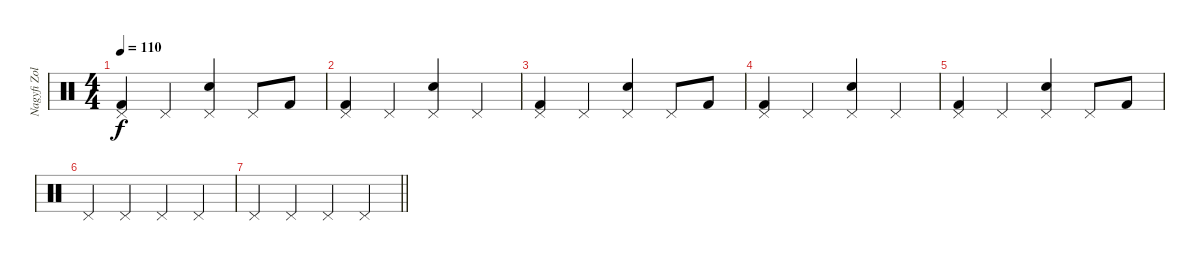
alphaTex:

\track ("Nagyfi Zoltán (dob)" "Nagyfi Zol") {instrument percussion}
\staff {score}
\articulation defaults
\ts (4 4)
\tempo 110
\clef neutral
\ks c
("Pedal Hi-Hat (hit)" "Kick (hit) 2").4{dy f} "Pedal Hi-Hat (hit)".4 ("Pedal Hi-Hat (hit)" "Snare (hit) 2").4 "Pedal Hi-Hat (hit)".8 "Kick (hit) 2".8 |
("Pedal Hi-Hat (hit)" "Kick (hit) 2").4 "Pedal Hi-Hat (hit)".4 ("Pedal Hi-Hat (hit)" "Snare (hit) 2").4 "Pedal Hi-Hat (hit)".4 |
("Pedal Hi-Hat (hit)" "Kick (hit) 2").4 "Pedal Hi-Hat (hit)".4 ("Pedal Hi-Hat (hit)" "Snare (hit) 2").4 "Pedal Hi-Hat (hit)".8 "Kick (hit) 2".8 |
("Pedal Hi-Hat (hit)" "Kick (hit) 2").4 "Pedal Hi-Hat (hit)".4 ("Pedal Hi-Hat (hit)" "Snare (hit) 2").4 "Pedal Hi-Hat (hit)".4 |
("Pedal Hi-Hat (hit)" "Kick (hit) 2").4 "Pedal Hi-Hat (hit)".4 ("Pedal Hi-Hat (hit)" "Snare (hit) 2").4 "Pedal Hi-Hat (hit)".8 "Kick (hit) 2".8 |
"Pedal Hi-Hat (hit)".4 "Pedal Hi-Hat (hit)".4 "Pedal Hi-Hat (hit)".4 "Pedal Hi-Hat (hit)".4 |
\barLineRight lightlight "Pedal Hi-Hat (hit)".4 "Pedal Hi-Hat (hit)".4 "Pedal Hi-Hat (hit)".4 "Pedal Hi-Hat (hit)".4
